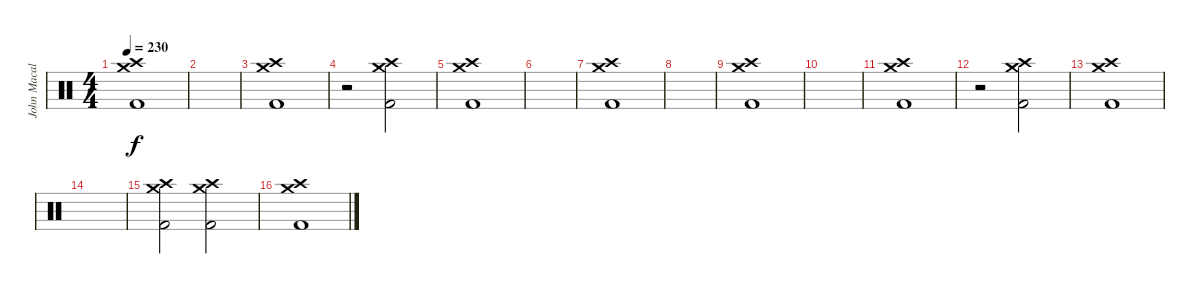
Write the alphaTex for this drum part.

\track ("John Macaluso" "John Macal") {instrument percussion}
\staff {score}
\articulation defaults
\ts (4 4)
\tempo 230
\clef neutral
\ks c
("Crash medium (hit)" "Crash high (hit)" "Kick (hit) 2").1{dy f} |
|
("Crash medium (hit)" "Crash high (hit)" "Kick (hit) 2").1 |
r.2 ("Crash medium (hit)" "Crash high (hit)" "Kick (hit) 2").2 |
("Crash medium (hit)" "Crash high (hit)" "Kick (hit) 2").1 |
|
("Crash medium (hit)" "Crash high (hit)" "Kick (hit) 2").1 |
|
("Crash medium (hit)" "Crash high (hit)" "Kick (hit) 2").1 |
|
("Crash medium (hit)" "Crash high (hit)" "Kick (hit) 2").1 |
r.2 ("Crash medium (hit)" "Crash high (hit)" "Kick (hit) 2").2 |
("Crash medium (hit)" "Crash high (hit)" "Kick (hit) 2").1 |
|
("Crash medium (hit)" "Crash high (hit)" "Kick (hit) 2").2 ("Crash medium (hit)" "Crash high (hit)" "Kick (hit) 2").2 |
("Crash medium (hit)" "Crash high (hit)" "Kick (hit) 2").1
